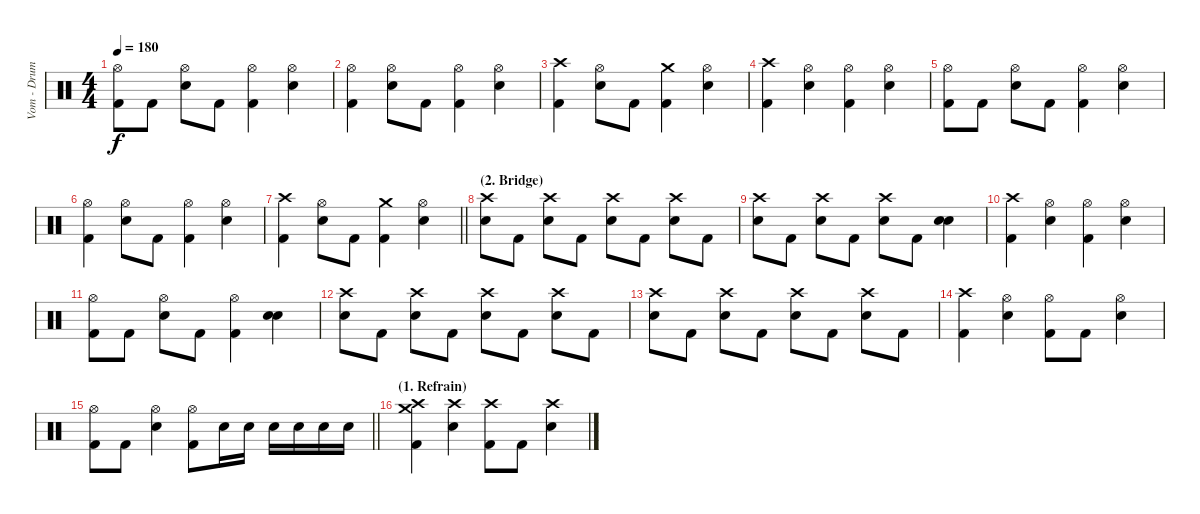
\track ("Vom - Drums" "Vom - Drum") {instrument percussion}
\staff {score}
\articulation defaults
\ts (4 4)
\tempo 180
\clef neutral
\ks c
("Hi-Hat (open)" "Kick (hit) 2").8{dy f} "Kick (hit) 2".8 ("Hi-Hat (open)" "Electric Snare (hit)").8 "Kick (hit) 2".8 ("Hi-Hat (open)" "Kick (hit) 2").4 ("Hi-Hat (open)" "Electric Snare (hit)").4 |
("Hi-Hat (open)" "Kick (hit) 2").4 ("Hi-Hat (open)" "Electric Snare (hit)").8 "Kick (hit) 2".8 ("Hi-Hat (open)" "Kick (hit) 2").4 ("Hi-Hat (open)" "Electric Snare (hit)").4 |
("Crash high (hit)" "Kick (hit) 2").4 ("Hi-Hat (open)" "Electric Snare (hit)").8 "Kick (hit) 2".8 ("Crash medium (hit)" "Kick (hit) 2").4 ("Hi-Hat (open)" "Electric Snare (hit)").4 |
("Crash high (hit)" "Kick (hit) 2").4 ("Hi-Hat (open)" "Electric Snare (hit)").4 ("Hi-Hat (open)" "Kick (hit) 2").4 ("Hi-Hat (open)" "Electric Snare (hit)").4 |
("Hi-Hat (open)" "Kick (hit) 2").8 "Kick (hit) 2".8 ("Hi-Hat (open)" "Electric Snare (hit)").8 "Kick (hit) 2".8 ("Hi-Hat (open)" "Kick (hit) 2").4 ("Hi-Hat (open)" "Electric Snare (hit)").4 |
("Hi-Hat (open)" "Kick (hit) 2").4 ("Hi-Hat (open)" "Electric Snare (hit)").8 "Kick (hit) 2".8 ("Hi-Hat (open)" "Kick (hit) 2").4 ("Hi-Hat (open)" "Electric Snare (hit)").4 |
\barLineRight lightlight
("Crash high (hit)" "Kick (hit) 2").4 ("Hi-Hat (open)" "Electric Snare (hit)").8 "Kick (hit) 2".8 ("Crash medium (hit)" "Kick (hit) 2").4 ("Hi-Hat (open)" "Electric Snare (hit)").4 |
\section ("" "(2. Bridge)")
("Crash high (hit)" "Electric Snare (hit)").8 "Kick (hit) 2".8 ("Crash high (hit)" "Electric Snare (hit)").8 "Kick (hit) 2".8 ("Crash high (hit)" "Electric Snare (hit)").8 "Kick (hit) 2".8 ("Crash high (hit)" "Electric Snare (hit)").8 "Kick (hit) 2".8 |
("Crash high (hit)" "Electric Snare (hit)").8 "Kick (hit) 2".8 ("Crash high (hit)" "Electric Snare (hit)").8 "Kick (hit) 2".8 ("Crash high (hit)" "Electric Snare (hit)").8 "Kick (hit) 2".8 ("Electric Snare (hit)" "Electric Snare (hit)").4 |
("Kick (hit) 2" "Crash high (hit)").4 ("Electric Snare (hit)" "Hi-Hat (open)").4 ("Kick (hit) 2" "Hi-Hat (open)").4 ("Electric Snare (hit)" "Hi-Hat (open)").4 |
("Hi-Hat (open)" "Kick (hit) 2").8 "Kick (hit) 2".8 ("Hi-Hat (open)" "Electric Snare (hit)").8 "Kick (hit) 2".8 ("Hi-Hat (open)" "Kick (hit) 2").4 ("Electric Snare (hit)" "Electric Snare (hit)").4 |
("Crash high (hit)" "Electric Snare (hit)").8 "Kick (hit) 2".8 ("Crash high (hit)" "Electric Snare (hit)").8 "Kick (hit) 2".8 ("Crash high (hit)" "Electric Snare (hit)").8 "Kick (hit) 2".8 ("Crash high (hit)" "Electric Snare (hit)").8 "Kick (hit) 2".8 |
("Crash high (hit)" "Electric Snare (hit)").8 "Kick (hit) 2".8 ("Crash high (hit)" "Electric Snare (hit)").8 "Kick (hit) 2".8 ("Crash high (hit)" "Electric Snare (hit)").8 "Kick (hit) 2".8 ("Crash high (hit)" "Electric Snare (hit)").8 "Kick (hit) 2".8 |
("Crash high (hit)" "Kick (hit) 2").4 ("Hi-Hat (open)" "Electric Snare (hit)").4 ("Hi-Hat (open)" "Kick (hit) 2").8 "Kick (hit) 2".8 ("Hi-Hat (open)" "Electric Snare (hit)").4 |
\barLineRight lightlight
("Hi-Hat (open)" "Kick (hit) 2").8 "Kick (hit) 2".8 ("Hi-Hat (open)" "Electric Snare (hit)").4 ("Hi-Hat (open)" "Kick (hit) 2").8 "Electric Snare (hit)".16 "Electric Snare (hit)".16 "Electric Snare (hit)".16 "Electric Snare (hit)".16 "Electric Snare (hit)".16 "Electric Snare (hit)".16 |
\section ("" "(1. Refrain)")
("Crash high (hit)" "Crash medium (hit)" "Kick (hit) 2").4 ("Crash high (hit)" "Electric Snare (hit)").4 ("Crash high (hit)" "Kick (hit) 2").8 "Kick (hit) 2".8 ("Crash high (hit)" "Electric Snare (hit)").4
